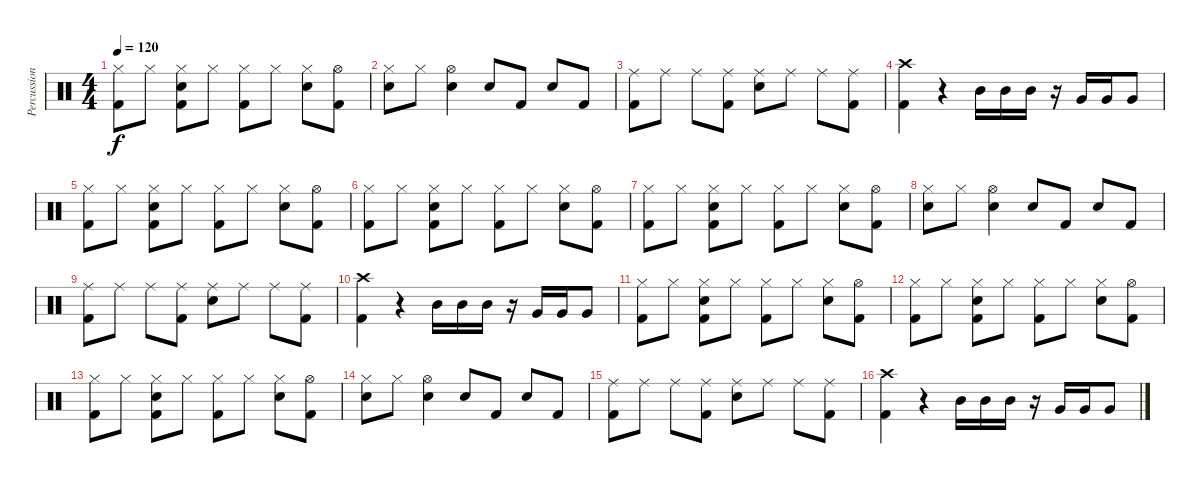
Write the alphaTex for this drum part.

\track ("Percussions" "Percussion") {instrument percussion}
\staff {score}
\articulation defaults
\ts (4 4)
\tempo 120
\clef neutral
\ks c
("Hi-Hat (closed)" "Kick (hit) 2").8{dy f} "Hi-Hat (closed)".8 ("Hi-Hat (closed)" "Snare (hit) 2" "Kick (hit) 2").8 "Hi-Hat (closed)".8 ("Hi-Hat (closed)" "Kick (hit) 2").8 "Hi-Hat (closed)".8 ("Hi-Hat (closed)" "Snare (hit) 2").8 ("Hi-Hat (open)" "Kick (hit) 2").8 |
("Hi-Hat (closed)" "Snare (hit) 2").8 "Hi-Hat (closed)".8 ("Hi-Hat (open)" "Snare (hit) 2").4 "Snare (hit) 2".8 "Kick (hit) 2".8 "Snare (hit) 2".8 "Kick (hit) 2".8 |
("Ride (middle)" "Kick (hit) 2").8 "Ride (middle)".8 "Ride (middle)".8 ("Ride (middle)" "Kick (hit) 2").8 ("Ride (middle)" "Snare (hit) 2").8 "Ride (middle)".8 "Ride (middle)".8 ("Ride (middle)" "Kick (hit) 2").8 |
("Crash high (hit)" "Kick (hit) 2").4 r.4 "Mid Tom (hit)".16 "Mid Tom (hit)".16 "Mid Tom (hit)".16 r.16 "Very Low Tom (hit)".16 "Very Low Tom (hit)".16 "Very Low Tom (hit)".8 |
("Hi-Hat (closed)" "Kick (hit) 2").8 "Hi-Hat (closed)".8 ("Hi-Hat (closed)" "Snare (hit) 2" "Kick (hit) 2").8 "Hi-Hat (closed)".8 ("Hi-Hat (closed)" "Kick (hit) 2").8 "Hi-Hat (closed)".8 ("Hi-Hat (closed)" "Snare (hit) 2").8 ("Hi-Hat (open)" "Kick (hit) 2").8 |
("Hi-Hat (closed)" "Kick (hit) 2").8 "Hi-Hat (closed)".8 ("Hi-Hat (closed)" "Snare (hit) 2" "Kick (hit) 2").8 "Hi-Hat (closed)".8 ("Hi-Hat (closed)" "Kick (hit) 2").8 "Hi-Hat (closed)".8 ("Hi-Hat (closed)" "Snare (hit) 2").8 ("Hi-Hat (open)" "Kick (hit) 2").8 |
("Hi-Hat (closed)" "Kick (hit) 2").8 "Hi-Hat (closed)".8 ("Hi-Hat (closed)" "Snare (hit) 2" "Kick (hit) 2").8 "Hi-Hat (closed)".8 ("Hi-Hat (closed)" "Kick (hit) 2").8 "Hi-Hat (closed)".8 ("Hi-Hat (closed)" "Snare (hit) 2").8 ("Hi-Hat (open)" "Kick (hit) 2").8 |
("Hi-Hat (closed)" "Snare (hit) 2").8 "Hi-Hat (closed)".8 ("Hi-Hat (open)" "Snare (hit) 2").4 "Snare (hit) 2".8 "Kick (hit) 2".8 "Snare (hit) 2".8 "Kick (hit) 2".8 |
("Ride (middle)" "Kick (hit) 2").8 "Ride (middle)".8 "Ride (middle)".8 ("Ride (middle)" "Kick (hit) 2").8 ("Ride (middle)" "Snare (hit) 2").8 "Ride (middle)".8 "Ride (middle)".8 ("Ride (middle)" "Kick (hit) 2").8 |
("Crash high (hit)" "Kick (hit) 2").4 r.4 "Mid Tom (hit)".16 "Mid Tom (hit)".16 "Mid Tom (hit)".16 r.16 "Very Low Tom (hit)".16 "Very Low Tom (hit)".16 "Very Low Tom (hit)".8 |
("Hi-Hat (closed)" "Kick (hit) 2").8 "Hi-Hat (closed)".8 ("Hi-Hat (closed)" "Snare (hit) 2" "Kick (hit) 2").8 "Hi-Hat (closed)".8 ("Hi-Hat (closed)" "Kick (hit) 2").8 "Hi-Hat (closed)".8 ("Hi-Hat (closed)" "Snare (hit) 2").8 ("Hi-Hat (open)" "Kick (hit) 2").8 |
("Hi-Hat (closed)" "Kick (hit) 2").8 "Hi-Hat (closed)".8 ("Hi-Hat (closed)" "Snare (hit) 2" "Kick (hit) 2").8 "Hi-Hat (closed)".8 ("Hi-Hat (closed)" "Kick (hit) 2").8 "Hi-Hat (closed)".8 ("Hi-Hat (closed)" "Snare (hit) 2").8 ("Hi-Hat (open)" "Kick (hit) 2").8 |
("Hi-Hat (closed)" "Kick (hit) 2").8 "Hi-Hat (closed)".8 ("Hi-Hat (closed)" "Snare (hit) 2" "Kick (hit) 2").8 "Hi-Hat (closed)".8 ("Hi-Hat (closed)" "Kick (hit) 2").8 "Hi-Hat (closed)".8 ("Hi-Hat (closed)" "Snare (hit) 2").8 ("Hi-Hat (open)" "Kick (hit) 2").8 |
("Hi-Hat (closed)" "Snare (hit) 2").8 "Hi-Hat (closed)".8 ("Hi-Hat (open)" "Snare (hit) 2").4 "Snare (hit) 2".8 "Kick (hit) 2".8 "Snare (hit) 2".8 "Kick (hit) 2".8 |
("Ride (middle)" "Kick (hit) 2").8 "Ride (middle)".8 "Ride (middle)".8 ("Ride (middle)" "Kick (hit) 2").8 ("Ride (middle)" "Snare (hit) 2").8 "Ride (middle)".8 "Ride (middle)".8 ("Ride (middle)" "Kick (hit) 2").8 |
("Crash high (hit)" "Kick (hit) 2").4 r.4 "Mid Tom (hit)".16 "Mid Tom (hit)".16 "Mid Tom (hit)".16 r.16 "Very Low Tom (hit)".16 "Very Low Tom (hit)".16 "Very Low Tom (hit)".8
